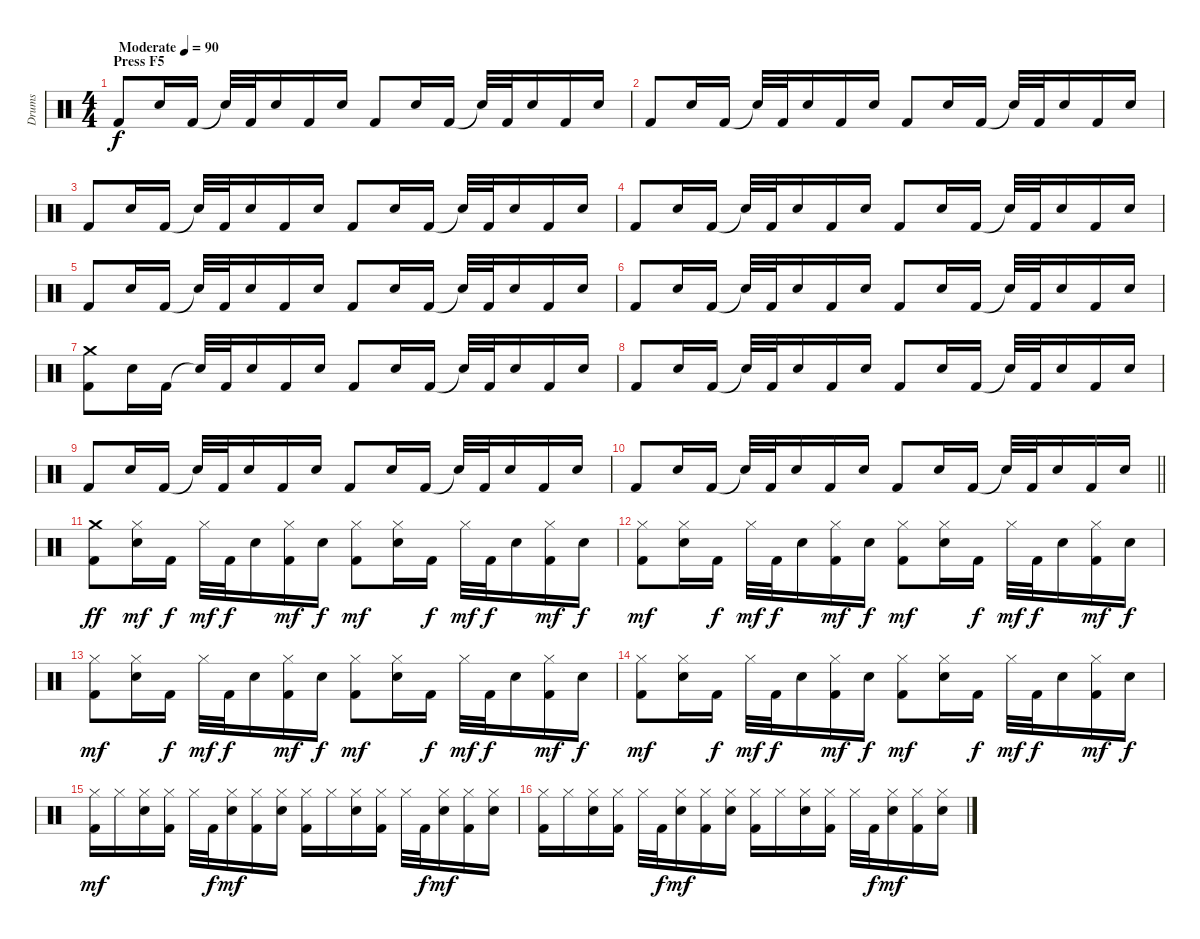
\track ("Drums" "Drums") {instrument percussion}
\staff {score}
\articulation defaults
\ts (4 4)
\section ("" "Press F5")
\tempo (90 "Moderate")
\clef neutral
\ks c "Kick (hit) 2".8{dy f} "Snare (hit) 2".16 "Kick (hit) 2".16 "Snare (hit)"{t}.32 "Kick (hit) 2".32 "Snare (hit) 2".16 "Kick (hit) 2".16 "Snare (hit) 2".16 "Kick (hit) 2".8 "Snare (hit) 2".16 "Kick (hit) 2".16 "Snare (hit)"{t}.32 "Kick (hit) 2".32 "Snare (hit) 2".16 "Kick (hit) 2".16 "Snare (hit) 2".16
|
"Kick (hit) 2".8 "Snare (hit) 2".16 "Kick (hit) 2".16 "Snare (hit)"{t}.32 "Kick (hit) 2".32 "Snare (hit) 2".16 "Kick (hit) 2".16 "Snare (hit) 2".16 "Kick (hit) 2".8 "Snare (hit) 2".16 "Kick (hit) 2".16 "Snare (hit)"{t}.32 "Kick (hit) 2".32 "Snare (hit) 2".16 "Kick (hit) 2".16 "Snare (hit) 2".16 |
"Kick (hit) 2".8 "Snare (hit) 2".16 "Kick (hit) 2".16 "Snare (hit)"{t}.32 "Kick (hit) 2".32 "Snare (hit) 2".16 "Kick (hit) 2".16 "Snare (hit) 2".16 "Kick (hit) 2".8 "Snare (hit) 2".16 "Kick (hit) 2".16 "Snare (hit)"{t}.32 "Kick (hit) 2".32 "Snare (hit) 2".16 "Kick (hit) 2".16 "Snare (hit) 2".16 |
"Kick (hit) 2".8 "Snare (hit) 2".16 "Kick (hit) 2".16 "Snare (hit)"{t}.32 "Kick (hit) 2".32 "Snare (hit) 2".16 "Kick (hit) 2".16 "Snare (hit) 2".16 "Kick (hit) 2".8 "Snare (hit) 2".16 "Kick (hit) 2".16 "Snare (hit)"{t}.32 "Kick (hit) 2".32 "Snare (hit) 2".16 "Kick (hit) 2".16 "Snare (hit) 2".16 |
"Kick (hit) 2".8 "Snare (hit) 2".16 "Kick (hit) 2".16 "Snare (hit)"{t}.32 "Kick (hit) 2".32 "Snare (hit) 2".16 "Kick (hit) 2".16 "Snare (hit) 2".16 "Kick (hit) 2".8 "Snare (hit) 2".16 "Kick (hit) 2".16 "Snare (hit)"{t}.32 "Kick (hit) 2".32 "Snare (hit) 2".16 "Kick (hit) 2".16 "Snare (hit) 2".16 |
"Kick (hit) 2".8 "Snare (hit) 2".16 "Kick (hit) 2".16 "Snare (hit)"{t}.32 "Kick (hit) 2".32 "Snare (hit) 2".16 "Kick (hit) 2".16 "Snare (hit) 2".16 "Kick (hit) 2".8 "Snare (hit) 2".16 "Kick (hit) 2".16 "Snare (hit)"{t}.32 "Kick (hit) 2".32 "Snare (hit) 2".16 "Kick (hit) 2".16 "Snare (hit) 2".16 |
("Crash medium (hit)" "Kick (hit) 2").8 "Snare (hit) 2".16 "Kick (hit) 2".16 "Snare (hit)"{t}.32 "Kick (hit) 2".32 "Snare (hit) 2".16 "Kick (hit) 2".16 "Snare (hit) 2".16 "Kick (hit) 2".8 "Snare (hit) 2".16 "Kick (hit) 2".16 "Snare (hit)"{t}.32 "Kick (hit) 2".32 "Snare (hit) 2".16 "Kick (hit) 2".16 "Snare (hit) 2".16 |
"Kick (hit) 2".8 "Snare (hit) 2".16 "Kick (hit) 2".16 "Snare (hit)"{t}.32 "Kick (hit) 2".32 "Snare (hit) 2".16 "Kick (hit) 2".16 "Snare (hit) 2".16 "Kick (hit) 2".8 "Snare (hit) 2".16 "Kick (hit) 2".16 "Snare (hit)"{t}.32 "Kick (hit) 2".32 "Snare (hit) 2".16 "Kick (hit) 2".16 "Snare (hit) 2".16 |
"Kick (hit) 2".8 "Snare (hit) 2".16 "Kick (hit) 2".16 "Snare (hit)"{t}.32 "Kick (hit) 2".32 "Snare (hit) 2".16 "Kick (hit) 2".16 "Snare (hit) 2".16 "Kick (hit) 2".8 "Snare (hit) 2".16 "Kick (hit) 2".16 "Snare (hit)"{t}.32 "Kick (hit) 2".32 "Snare (hit) 2".16 "Kick (hit) 2".16 "Snare (hit) 2".16 |
\barLineRight lightlight "Kick (hit) 2".8 "Snare (hit) 2".16 "Kick (hit) 2".16 "Snare (hit)"{t}.32 "Kick (hit) 2".32 "Snare (hit) 2".16 "Kick (hit) 2".16 "Snare (hit) 2".16 "Kick (hit) 2".8 "Snare (hit) 2".16 "Kick (hit) 2".16 "Snare (hit)"{t}.32 "Kick (hit) 2".32 "Snare (hit) 2".16 "Kick (hit) 2".16 "Snare (hit) 2".16
|
\section ("" "")
("Crash medium (hit)" "Kick (hit) 2").8{dy ff} ("Hi-Hat (closed)" "Snare (hit) 2").16{dy mf} "Kick (hit) 2".16{dy f} "Hi-Hat (closed)".32{dy mf} "Kick (hit) 2".32{dy f} "Snare (hit) 2".16 ("Hi-Hat (closed)" "Kick (hit) 2").16{dy mf} "Snare (hit) 2".16{dy f} ("Hi-Hat (closed)" "Kick (hit) 2").8{dy mf} ("Hi-Hat (closed)" "Snare (hit) 2").16 "Kick (hit) 2".16{dy f} "Hi-Hat (closed)".32{dy mf} "Kick (hit) 2".32{dy f} "Snare (hit) 2".16 ("Hi-Hat (closed)" "Kick (hit) 2").16{dy mf} "Snare (hit) 2".16{dy f} |
("Hi-Hat (closed)" "Kick (hit) 2").8{dy mf} ("Hi-Hat (closed)" "Snare (hit) 2").16 "Kick (hit) 2".16{dy f} "Hi-Hat (closed)".32{dy mf} "Kick (hit) 2".32{dy f} "Snare (hit) 2".16 ("Hi-Hat (closed)" "Kick (hit) 2").16{dy mf} "Snare (hit) 2".16{dy f} ("Hi-Hat (closed)" "Kick (hit) 2").8{dy mf} ("Hi-Hat (closed)" "Snare (hit) 2").16 "Kick (hit) 2".16{dy f} "Hi-Hat (closed)".32{dy mf} "Kick (hit) 2".32{dy f} "Snare (hit) 2".16 ("Hi-Hat (closed)" "Kick (hit) 2").16{dy mf} "Snare (hit) 2".16{dy f} |
("Hi-Hat (closed)" "Kick (hit) 2").8{dy mf} ("Hi-Hat (closed)" "Snare (hit) 2").16 "Kick (hit) 2".16{dy f} "Hi-Hat (closed)".32{dy mf} "Kick (hit) 2".32{dy f} "Snare (hit) 2".16 ("Hi-Hat (closed)" "Kick (hit) 2").16{dy mf} "Snare (hit) 2".16{dy f} ("Hi-Hat (closed)" "Kick (hit) 2").8{dy mf} ("Hi-Hat (closed)" "Snare (hit) 2").16 "Kick (hit) 2".16{dy f} "Hi-Hat (closed)".32{dy mf} "Kick (hit) 2".32{dy f} "Snare (hit) 2".16 ("Hi-Hat (closed)" "Kick (hit) 2").16{dy mf} "Snare (hit) 2".16{dy f} |
("Hi-Hat (closed)" "Kick (hit) 2").8{dy mf} ("Hi-Hat (closed)" "Snare (hit) 2").16 "Kick (hit) 2".16{dy f} "Hi-Hat (closed)".32{dy mf} "Kick (hit) 2".32{dy f} "Snare (hit) 2".16 ("Hi-Hat (closed)" "Kick (hit) 2").16{dy mf} "Snare (hit) 2".16{dy f} ("Hi-Hat (closed)" "Kick (hit) 2").8{dy mf} ("Hi-Hat (closed)" "Snare (hit) 2").16 "Kick (hit) 2".16{dy f} "Hi-Hat (closed)".32{dy mf} "Kick (hit) 2".32{dy f} "Snare (hit) 2".16 ("Hi-Hat (closed)" "Kick (hit) 2").16{dy mf} "Snare (hit) 2".16{dy f} |
("Hi-Hat (closed)" "Kick (hit) 2").16{dy mf} "Hi-Hat (closed)".16 ("Hi-Hat (closed)" "Snare (hit) 2").16 ("Hi-Hat (closed)" "Kick (hit) 2").16 "Hi-Hat (closed)".32 "Kick (hit) 2".32{dy f} ("Hi-Hat (closed)" "Snare (hit) 2").16{dy mf} ("Hi-Hat (closed)" "Kick (hit) 2").16 ("Hi-Hat (closed)" "Snare (hit) 2").16 ("Hi-Hat (closed)" "Kick (hit) 2").16 "Hi-Hat (closed)".16 ("Hi-Hat (closed)" "Snare (hit) 2").16 ("Hi-Hat (closed)" "Kick (hit) 2").16 "Hi-Hat (closed)".32 "Kick (hit) 2".32{dy f} ("Hi-Hat (closed)" "Snare (hit) 2").16{dy mf} ("Hi-Hat (closed)" "Kick (hit) 2").16 ("Hi-Hat (closed)" "Snare (hit) 2").16 |
("Hi-Hat (closed)" "Kick (hit) 2").16 "Hi-Hat (closed)".16 ("Hi-Hat (closed)" "Snare (hit) 2").16 ("Hi-Hat (closed)" "Kick (hit) 2").16 "Hi-Hat (closed)".32 "Kick (hit) 2".32{dy f} ("Hi-Hat (closed)" "Snare (hit) 2").16{dy mf} ("Hi-Hat (closed)" "Kick (hit) 2").16 ("Hi-Hat (closed)" "Snare (hit) 2").16 ("Hi-Hat (closed)" "Kick (hit) 2").16 "Hi-Hat (closed)".16 ("Hi-Hat (closed)" "Snare (hit) 2").16 ("Hi-Hat (closed)" "Kick (hit) 2").16 "Hi-Hat (closed)".32 "Kick (hit) 2".32{dy f} ("Hi-Hat (closed)" "Snare (hit) 2").16{dy mf} ("Hi-Hat (closed)" "Kick (hit) 2").16 ("Hi-Hat (closed)" "Snare (hit) 2").16
